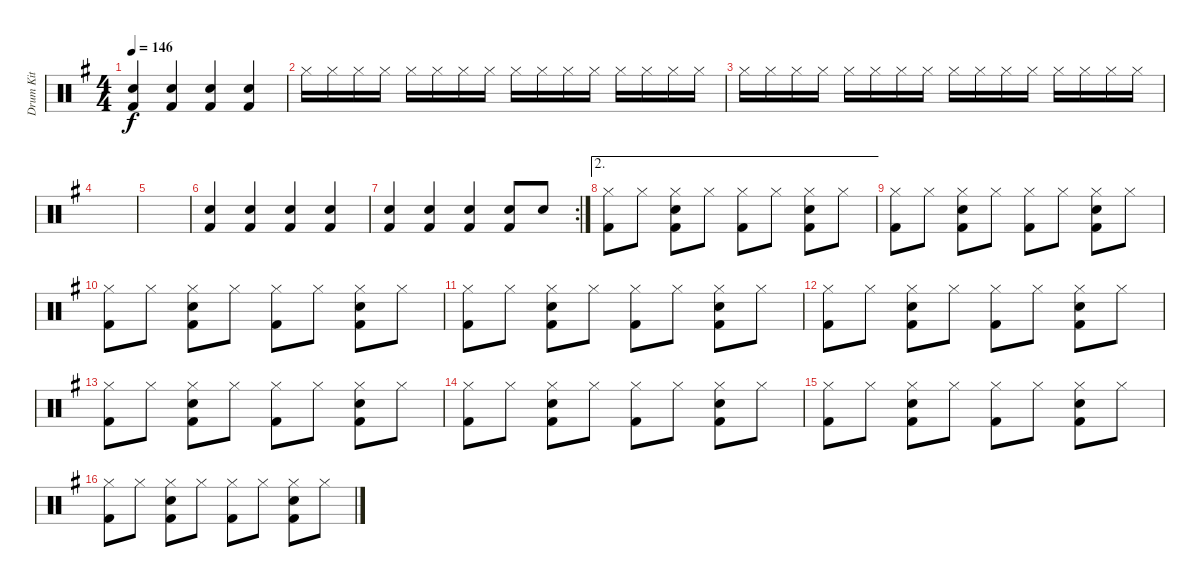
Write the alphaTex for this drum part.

\track ("Drum Kit" "Drum Kit") {instrument percussion}
\staff {score}
\articulation defaults
\ts (4 4)
\tempo 146
\clef neutral
\ks g
("Hand Clap (hit)" "Kick (hit) 2").4{dy f} ("Hand Clap (hit)" "Kick (hit) 2").4 ("Hand Clap (hit)" "Kick (hit) 2").4 ("Hand Clap (hit)" "Kick (hit) 2").4 |
"Hi-Hat (closed)".16 "Hi-Hat (closed)".16 "Hi-Hat (closed)".16 "Hi-Hat (closed)".16 "Hi-Hat (closed)".16 "Hi-Hat (closed)".16 "Hi-Hat (closed)".16 "Hi-Hat (closed)".16 "Hi-Hat (closed)".16 "Hi-Hat (closed)".16 "Hi-Hat (closed)".16 "Hi-Hat (closed)".16 "Hi-Hat (closed)".16 "Hi-Hat (closed)".16 "Hi-Hat (closed)".16 "Hi-Hat (closed)".16 |
"Hi-Hat (closed)".16 "Hi-Hat (closed)".16 "Hi-Hat (closed)".16 "Hi-Hat (closed)".16 "Hi-Hat (closed)".16 "Hi-Hat (closed)".16 "Hi-Hat (closed)".16 "Hi-Hat (closed)".16 "Hi-Hat (closed)".16 "Hi-Hat (closed)".16 "Hi-Hat (closed)".16 "Hi-Hat (closed)".16 "Hi-Hat (closed)".16 "Hi-Hat (closed)".16 "Hi-Hat (closed)".16 "Hi-Hat (closed)".16 |
|
|
("Hand Clap (hit)" "Kick (hit) 2").4 ("Hand Clap (hit)" "Kick (hit) 2").4 ("Hand Clap (hit)" "Kick (hit) 2").4 ("Hand Clap (hit)" "Kick (hit) 2").4 |
\rc 2
("Hand Clap (hit)" "Kick (hit) 2").4 ("Hand Clap (hit)" "Kick (hit) 2").4 ("Hand Clap (hit)" "Kick (hit) 2").4 ("Hand Clap (hit)" "Kick (hit) 2").8 "Electric Snare (hit)".8 |
\ae 2
("Hi-Hat (closed)" "Kick (hit) 2").8 "Hi-Hat (closed)".8 ("Hi-Hat (closed)" "Electric Snare (hit)" "Kick (hit) 2").8 "Hi-Hat (closed)".8 ("Hi-Hat (closed)" "Kick (hit) 2").8 "Hi-Hat (closed)".8 ("Hi-Hat (closed)" "Electric Snare (hit)" "Kick (hit) 2").8 "Hi-Hat (closed)".8 |
("Hi-Hat (closed)" "Kick (hit) 2").8 "Hi-Hat (closed)".8 ("Hi-Hat (closed)" "Electric Snare (hit)" "Kick (hit) 2").8 "Hi-Hat (closed)".8 ("Hi-Hat (closed)" "Kick (hit) 2").8 "Hi-Hat (closed)".8 ("Hi-Hat (closed)" "Electric Snare (hit)" "Kick (hit) 2").8 "Hi-Hat (closed)".8 |
("Hi-Hat (closed)" "Kick (hit) 2").8 "Hi-Hat (closed)".8 ("Hi-Hat (closed)" "Electric Snare (hit)" "Kick (hit) 2").8 "Hi-Hat (closed)".8 ("Hi-Hat (closed)" "Kick (hit) 2").8 "Hi-Hat (closed)".8 ("Hi-Hat (closed)" "Electric Snare (hit)" "Kick (hit) 2").8 "Hi-Hat (closed)".8 |
("Hi-Hat (closed)" "Kick (hit) 2").8 "Hi-Hat (closed)".8 ("Hi-Hat (closed)" "Electric Snare (hit)" "Kick (hit) 2").8 "Hi-Hat (closed)".8 ("Hi-Hat (closed)" "Kick (hit) 2").8 "Hi-Hat (closed)".8 ("Hi-Hat (closed)" "Electric Snare (hit)" "Kick (hit) 2").8 "Hi-Hat (closed)".8 |
("Hi-Hat (closed)" "Kick (hit) 2").8 "Hi-Hat (closed)".8 ("Hi-Hat (closed)" "Electric Snare (hit)" "Kick (hit) 2").8 "Hi-Hat (closed)".8 ("Hi-Hat (closed)" "Kick (hit) 2").8 "Hi-Hat (closed)".8 ("Hi-Hat (closed)" "Electric Snare (hit)" "Kick (hit) 2").8 "Hi-Hat (closed)".8 |
("Hi-Hat (closed)" "Kick (hit) 2").8 "Hi-Hat (closed)".8 ("Hi-Hat (closed)" "Electric Snare (hit)" "Kick (hit) 2").8 "Hi-Hat (closed)".8 ("Hi-Hat (closed)" "Kick (hit) 2").8 "Hi-Hat (closed)".8 ("Hi-Hat (closed)" "Electric Snare (hit)" "Kick (hit) 2").8 "Hi-Hat (closed)".8 |
("Hi-Hat (closed)" "Kick (hit) 2").8 "Hi-Hat (closed)".8 ("Hi-Hat (closed)" "Electric Snare (hit)" "Kick (hit) 2").8 "Hi-Hat (closed)".8 ("Hi-Hat (closed)" "Kick (hit) 2").8 "Hi-Hat (closed)".8 ("Hi-Hat (closed)" "Electric Snare (hit)" "Kick (hit) 2").8 "Hi-Hat (closed)".8 |
("Hi-Hat (closed)" "Kick (hit) 2").8 "Hi-Hat (closed)".8 ("Hi-Hat (closed)" "Electric Snare (hit)" "Kick (hit) 2").8 "Hi-Hat (closed)".8 ("Hi-Hat (closed)" "Kick (hit) 2").8 "Hi-Hat (closed)".8 ("Hi-Hat (closed)" "Electric Snare (hit)" "Kick (hit) 2").8 "Hi-Hat (closed)".8 |
("Hi-Hat (closed)" "Kick (hit) 2").8 "Hi-Hat (closed)".8 ("Hi-Hat (closed)" "Electric Snare (hit)" "Kick (hit) 2").8 "Hi-Hat (closed)".8 ("Hi-Hat (closed)" "Kick (hit) 2").8 "Hi-Hat (closed)".8 ("Hi-Hat (closed)" "Electric Snare (hit)" "Kick (hit) 2").8 "Hi-Hat (closed)".8
